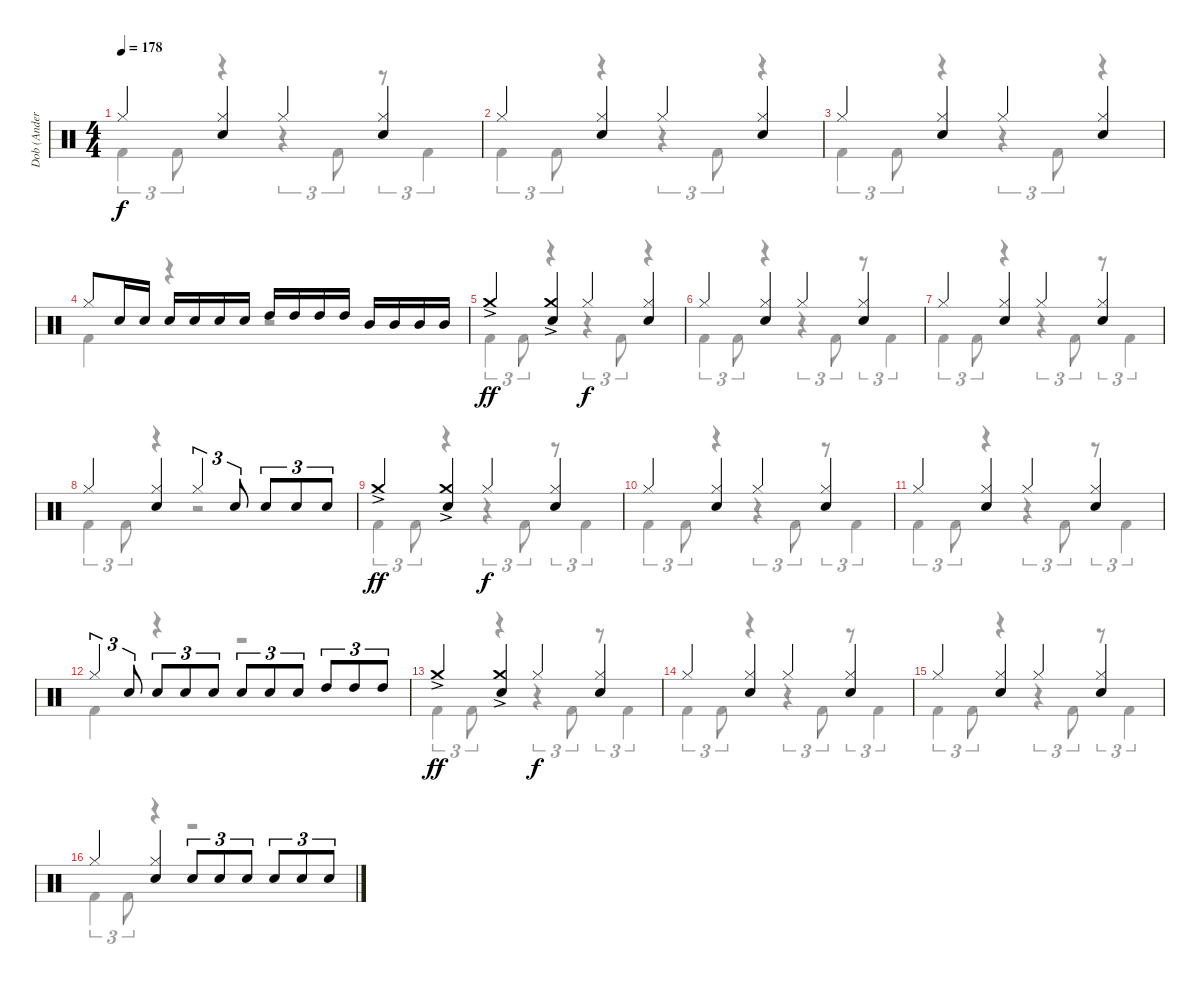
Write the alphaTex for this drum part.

\track ("Dob (Anders Johansson)" "Dob (Ander") {instrument percussion}
\staff {score}
\articulation defaults
\voice
\ts (4 4)
\tempo 178
\clef neutral
\ks c "Hi-Hat (closed)".4{dy f}
("Hi-Hat (closed)" "Electric Snare (hit)").4 "Hi-Hat (closed)".4 ("Hi-Hat (closed)" "Electric Snare (hit)").4 |
"Hi-Hat (closed)".4 ("Hi-Hat (closed)" "Electric Snare (hit)").4 "Hi-Hat (closed)".4 ("Hi-Hat (closed)" "Electric Snare (hit)").4 |
"Hi-Hat (closed)".4 ("Hi-Hat (closed)" "Electric Snare (hit)").4 "Hi-Hat (closed)".4 ("Hi-Hat (closed)" "Electric Snare (hit)").4 |
"Hi-Hat (closed)".8 "Electric Snare (hit)".16 "Electric Snare (hit)".16 "Electric Snare (hit)".16 "Electric Snare (hit)".16 "Electric Snare (hit)".16 "Electric Snare (hit)".16 "High Tom (hit)".16 "High Tom (hit)".16 "High Tom (hit)".16 "High Tom (hit)".16 "Mid Tom (hit)".16 "Mid Tom (hit)".16 "Mid Tom (hit)".16 "Mid Tom (hit)".16 |
"Crash medium (hit)"{ac}.4{dy ff} ("Crash medium (hit)"{ac} "Electric Snare (hit)").4 "Hi-Hat (closed)".4{dy f} ("Hi-Hat (closed)" "Electric Snare (hit)").4 |
"Hi-Hat (closed)".4 ("Hi-Hat (closed)" "Electric Snare (hit)").4 "Hi-Hat (closed)".4 ("Hi-Hat (closed)" "Electric Snare (hit)").4 |
"Hi-Hat (closed)".4 ("Hi-Hat (closed)" "Electric Snare (hit)").4 "Hi-Hat (closed)".4 ("Hi-Hat (closed)" "Electric Snare (hit)").4 |
"Hi-Hat (closed)".4 ("Hi-Hat (closed)" "Electric Snare (hit)").4 "Hi-Hat (closed)".4{tu (3 2)} "Electric Snare (hit)".8{tu (3 2)} "Electric Snare (hit)".8{tu (3 2)} "Electric Snare (hit)".8{tu (3 2)} "Electric Snare (hit)".8{tu (3 2)} |
"Crash medium (hit)"{ac}.4{dy ff} ("Crash medium (hit)"{ac} "Electric Snare (hit)").4 "Hi-Hat (closed)".4{dy f} ("Hi-Hat (closed)" "Electric Snare (hit)").4 |
"Hi-Hat (closed)".4 ("Hi-Hat (closed)" "Electric Snare (hit)").4 "Hi-Hat (closed)".4 ("Hi-Hat (closed)" "Electric Snare (hit)").4 |
"Hi-Hat (closed)".4 ("Hi-Hat (closed)" "Electric Snare (hit)").4 "Hi-Hat (closed)".4 ("Hi-Hat (closed)" "Electric Snare (hit)").4 |
"Hi-Hat (closed)".4{tu (3 2)} "Electric Snare (hit)".8{tu (3 2)} "Electric Snare (hit)".8{tu (3 2)} "Electric Snare (hit)".8{tu (3 2)} "Electric Snare (hit)".8{tu (3 2)} "Electric Snare (hit)".8{tu (3 2)} "Electric Snare (hit)".8{tu (3 2)} "Electric Snare (hit)".8{tu (3 2)} "High Tom (hit)".8{tu (3 2)} "High Tom (hit)".8{tu (3 2)} "High Tom (hit)".8{tu (3 2)} |
"Crash medium (hit)"{ac}.4{dy ff} ("Crash medium (hit)"{ac} "Electric Snare (hit)").4 "Hi-Hat (closed)".4{dy f} ("Hi-Hat (closed)" "Electric Snare (hit)").4 |
"Hi-Hat (closed)".4 ("Hi-Hat (closed)" "Electric Snare (hit)").4 "Hi-Hat (closed)".4 ("Hi-Hat (closed)" "Electric Snare (hit)").4 |
"Hi-Hat (closed)".4 ("Hi-Hat (closed)" "Electric Snare (hit)").4 "Hi-Hat (closed)".4 ("Hi-Hat (closed)" "Electric Snare (hit)").4 |
"Hi-Hat (closed)".4 ("Hi-Hat (closed)" "Electric Snare (hit)").4 "Electric Snare (hit)".8{tu (3 2)} "Electric Snare (hit)".8{tu (3 2)} "Electric Snare (hit)".8{tu (3 2)} "Electric Snare (hit)".8{tu (3 2)} "Electric Snare (hit)".8{tu (3 2)} "Electric Snare (hit)".8{tu (3 2)}
\voice
\clef neutral
\ottava regular
\simile none
\ks c "Kick (hit) 2".4{tu (3 2) dy f} "Kick (hit) 2".8{tu (3 2)}
r.4 r.4{tu (3 2)} "Kick (hit) 2".8{tu (3 2)} r.8{tu (3 2)} "Kick (hit) 2".4{tu (3 2)} |
"Kick (hit) 2".4{tu (3 2)} "Kick (hit) 2".8{tu (3 2)} r.4 r.4{tu (3 2)} "Kick (hit) 2".8{tu (3 2)} r.4 |
"Kick (hit) 2".4{tu (3 2)} "Kick (hit) 2".8{tu (3 2)} r.4 r.4{tu (3 2)} "Kick (hit) 2".8{tu (3 2)} r.4 |
"Kick (hit) 2".4 r.4 r.2 |
"Kick (hit) 2".4{tu (3 2)} "Kick (hit) 2".8{tu (3 2)} r.4 r.4{tu (3 2)} "Kick (hit) 2".8{tu (3 2)} r.4 |
"Kick (hit) 2".4{tu (3 2)} "Kick (hit) 2".8{tu (3 2)} r.4 r.4{tu (3 2)} "Kick (hit) 2".8{tu (3 2)} r.8{tu (3 2)} "Kick (hit) 2".4{tu (3 2)} |
"Kick (hit) 2".4{tu (3 2)} "Kick (hit) 2".8{tu (3 2)} r.4 r.4{tu (3 2)} "Kick (hit) 2".8{tu (3 2)} r.8{tu (3 2)} "Kick (hit) 2".4{tu (3 2)} |
"Kick (hit) 2".4{tu (3 2)} "Kick (hit) 2".8{tu (3 2)} r.4 r.2 |
"Kick (hit) 2".4{tu (3 2)} "Kick (hit) 2".8{tu (3 2)} r.4 r.4{tu (3 2)} "Kick (hit) 2".8{tu (3 2)} r.8{tu (3 2)} "Kick (hit) 2".4{tu (3 2)} |
"Kick (hit) 2".4{tu (3 2)} "Kick (hit) 2".8{tu (3 2)} r.4 r.4{tu (3 2)} "Kick (hit) 2".8{tu (3 2)} r.8{tu (3 2)} "Kick (hit) 2".4{tu (3 2)} |
"Kick (hit) 2".4{tu (3 2)} "Kick (hit) 2".8{tu (3 2)} r.4 r.4{tu (3 2)} "Kick (hit) 2".8{tu (3 2)} r.8{tu (3 2)} "Kick (hit) 2".4{tu (3 2)} |
"Kick (hit) 2".4 r.4 r.2 |
"Kick (hit) 2".4{tu (3 2)} "Kick (hit) 2".8{tu (3 2)} r.4 r.4{tu (3 2)} "Kick (hit) 2".8{tu (3 2)} r.8{tu (3 2)} "Kick (hit) 2".4{tu (3 2)} |
"Kick (hit) 2".4{tu (3 2)} "Kick (hit) 2".8{tu (3 2)} r.4 r.4{tu (3 2)} "Kick (hit) 2".8{tu (3 2)} r.8{tu (3 2)} "Kick (hit) 2".4{tu (3 2)} |
"Kick (hit) 2".4{tu (3 2)} "Kick (hit) 2".8{tu (3 2)} r.4 r.4{tu (3 2)} "Kick (hit) 2".8{tu (3 2)} r.8{tu (3 2)} "Kick (hit) 2".4{tu (3 2)} |
"Kick (hit) 2".4{tu (3 2)} "Kick (hit) 2".8{tu (3 2)} r.4 r.2
